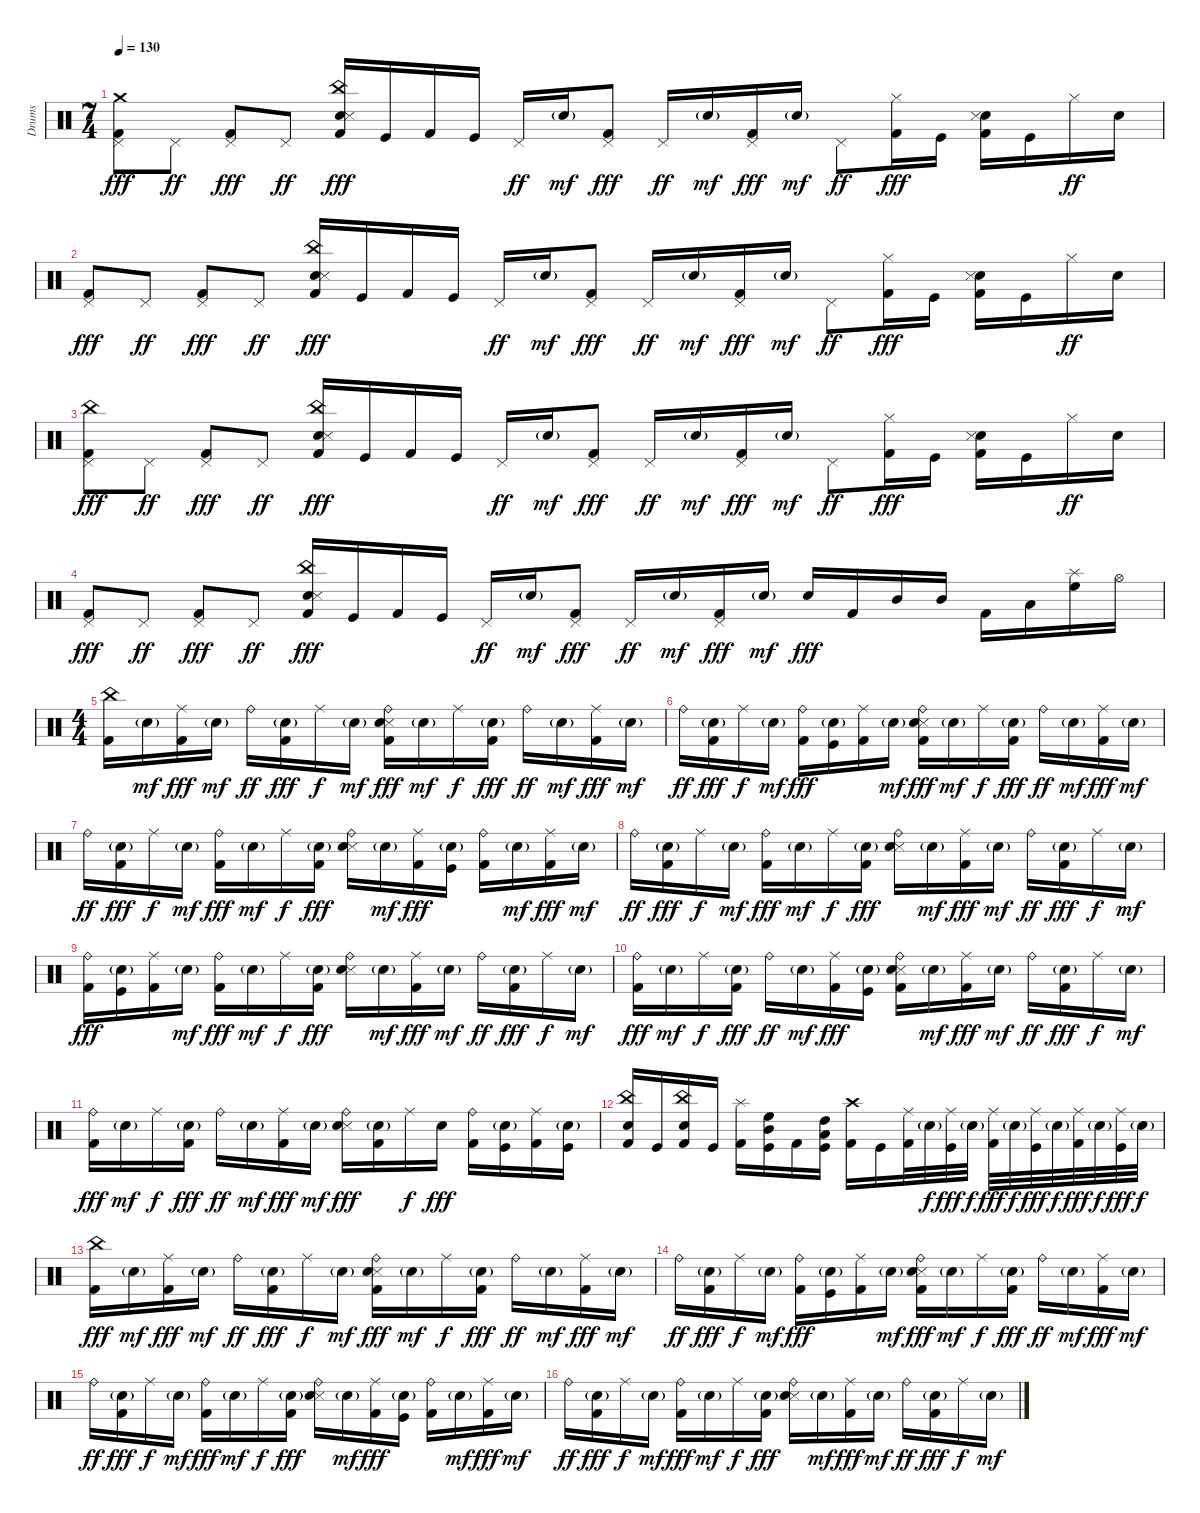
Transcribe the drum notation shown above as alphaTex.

\track ("Drums" "Drums") {instrument percussion}
\staff {score}
\articulation defaults
\ts (7 4)
\tempo 130
\clef neutral
\ks c
("Crash medium (hit)" "Pedal Hi-Hat (hit)" "Kick (hit) 2").8{dy fff} "Pedal Hi-Hat (hit)".8{dy ff} ("Pedal Hi-Hat (hit)" "Kick (hit) 2").8{dy fff} "Pedal Hi-Hat (hit)".8{dy ff} ("China (hit)" "Snare (hit) 2" "Snare (side stick) 3" "Kick (hit) 2").16{dy fff} "Kick (hit)".16 "Kick (hit) 2".16 "Kick (hit)".16 "Pedal Hi-Hat (hit)".16{dy ff} "Snare (hit) 2"{g}.16{dy mf} ("Pedal Hi-Hat (hit)" "Kick (hit) 2").8{dy fff} "Pedal Hi-Hat (hit)".16{dy ff} "Snare (hit) 2"{g}.16{dy mf} ("Pedal Hi-Hat (hit)" "Kick (hit) 2").16{dy fff} "Snare (hit) 2"{g}.16{dy mf} "Pedal Hi-Hat (hit)".8{dy ff} ("Hi-Hat (closed)" "Kick (hit) 2").16{dy fff} "Kick (hit)".16 ("Snare (hit) 2" "Snare (side stick) 3" "Kick (hit) 2").16 "Kick (hit)".16 "Hi-Hat (closed)".16{dy ff} "Snare (hit) 2".16 |
("Pedal Hi-Hat (hit)" "Kick (hit) 2").8{dy fff} "Pedal Hi-Hat (hit)".8{dy ff} ("Pedal Hi-Hat (hit)" "Kick (hit) 2").8{dy fff} "Pedal Hi-Hat (hit)".8{dy ff} ("China (hit)" "Snare (hit) 2" "Snare (side stick) 3" "Kick (hit) 2").16{dy fff} "Kick (hit)".16 "Kick (hit) 2".16 "Kick (hit)".16 "Pedal Hi-Hat (hit)".16{dy ff} "Snare (hit) 2"{g}.16{dy mf} ("Pedal Hi-Hat (hit)" "Kick (hit) 2").8{dy fff} "Pedal Hi-Hat (hit)".16{dy ff} "Snare (hit) 2"{g}.16{dy mf} ("Pedal Hi-Hat (hit)" "Kick (hit) 2").16{dy fff} "Snare (hit) 2"{g}.16{dy mf} "Pedal Hi-Hat (hit)".8{dy ff} ("Hi-Hat (closed)" "Kick (hit) 2").16{dy fff} "Kick (hit)".16 ("Snare (hit) 2" "Snare (side stick) 3" "Kick (hit) 2").16 "Kick (hit)".16 "Hi-Hat (closed)".16{dy ff} "Snare (hit) 2".16 |
("China (hit)" "Pedal Hi-Hat (hit)" "Kick (hit) 2").8{dy fff} "Pedal Hi-Hat (hit)".8{dy ff} ("Pedal Hi-Hat (hit)" "Kick (hit) 2").8{dy fff} "Pedal Hi-Hat (hit)".8{dy ff} ("China (hit)" "Snare (hit) 2" "Snare (side stick) 3" "Kick (hit) 2").16{dy fff} "Kick (hit)".16 "Kick (hit) 2".16 "Kick (hit)".16 "Pedal Hi-Hat (hit)".16{dy ff} "Snare (hit) 2"{g}.16{dy mf} ("Pedal Hi-Hat (hit)" "Kick (hit) 2").8{dy fff} "Pedal Hi-Hat (hit)".16{dy ff} "Snare (hit) 2"{g}.16{dy mf} ("Pedal Hi-Hat (hit)" "Kick (hit) 2").16{dy fff} "Snare (hit) 2"{g}.16{dy mf} "Pedal Hi-Hat (hit)".8{dy ff} ("Hi-Hat (closed)" "Kick (hit) 2").16{dy fff} "Kick (hit)".16 ("Snare (hit) 2" "Snare (side stick) 3" "Kick (hit) 2").16 "Kick (hit)".16 "Hi-Hat (closed)".16{dy ff} "Snare (hit) 2".16 |
("Pedal Hi-Hat (hit)" "Kick (hit) 2").8{dy fff} "Pedal Hi-Hat (hit)".8{dy ff} ("Pedal Hi-Hat (hit)" "Kick (hit) 2").8{dy fff} "Pedal Hi-Hat (hit)".8{dy ff} ("China (hit)" "Snare (hit) 2" "Snare (side stick) 3" "Kick (hit) 2").16{dy fff} "Kick (hit)".16 "Kick (hit) 2".16 "Kick (hit)".16 "Pedal Hi-Hat (hit)".16{dy ff} "Snare (hit) 2"{g}.16{dy mf} ("Pedal Hi-Hat (hit)" "Kick (hit) 2").8{dy fff} "Pedal Hi-Hat (hit)".16{dy ff} "Snare (hit) 2"{g}.16{dy mf} ("Pedal Hi-Hat (hit)" "Kick (hit) 2").16{dy fff} "Snare (hit) 2"{g}.16{dy mf} "Snare (hit) 2".16{dy fff} "Kick (hit) 2".16 "Mid Tom (hit)".16 "Mid Tom (hit)".16 "Kick (hit) 2".16 "Low Tom (hit)".16 ("Splash (hit)" "High Floor Tom (hit)").16 "Hi-Hat (open)".16 |
\ts (4 4)
("China (hit)" "Kick (hit) 2").16 "Snare (hit) 2"{g}.16{dy mf} ("Ride (middle)" "Kick (hit) 2").16{dy fff} "Snare (hit) 2"{g}.16{dy mf} "Ride (bell)".16{dy ff} ("Snare (hit) 2"{g} "Kick (hit) 2").16{dy fff} "Ride (middle)".16{dy f} "Snare (hit) 2"{g}.16{dy mf} ("Ride (bell)" "Snare (side stick) 3" "Snare (hit) 2" "Kick (hit) 2").16{dy fff} "Snare (hit) 2"{g}.16{dy mf} "Ride (middle)".16{dy f} ("Snare (hit) 2"{g} "Kick (hit) 2").16{dy fff} "Ride (bell)".16{dy ff} "Snare (hit) 2"{g}.16{dy mf} ("Ride (middle)" "Kick (hit) 2").16{dy fff} "Snare (hit) 2"{g}.16{dy mf} |
"Ride (bell)".16{dy ff} ("Snare (hit) 2"{g} "Kick (hit) 2").16{dy fff} "Ride (middle)".16{dy f} "Snare (hit) 2"{g}.16{dy mf} ("Ride (bell)" "Kick (hit) 2").16{dy fff} ("Snare (hit) 2"{g} "Kick (hit)").16 ("Ride (middle)" "Kick (hit) 2").16 "Snare (hit) 2"{g}.16{dy mf} ("Ride (bell)" "Snare (side stick) 3" "Snare (hit) 2" "Kick (hit) 2").16{dy fff} "Snare (hit) 2"{g}.16{dy mf} "Ride (middle)".16{dy f} ("Snare (hit) 2"{g} "Kick (hit) 2").16{dy fff} "Ride (bell)".16{dy ff} "Snare (hit) 2"{g}.16{dy mf} ("Ride (middle)" "Kick (hit) 2").16{dy fff} "Snare (hit) 2"{g}.16{dy mf} |
"Ride (bell)".16{dy ff} ("Snare (hit) 2"{g} "Kick (hit) 2").16{dy fff} "Ride (middle)".16{dy f} "Snare (hit) 2"{g}.16{dy mf} ("Ride (bell)" "Kick (hit) 2").16{dy fff} "Snare (hit) 2"{g}.16{dy mf} "Ride (middle)".16{dy f} ("Snare (hit) 2"{g} "Kick (hit) 2").16{dy fff} ("Ride (bell)" "Snare (side stick) 3" "Snare (hit) 2").16 "Snare (hit) 2"{g}.16{dy mf} ("Ride (middle)" "Kick (hit) 2").16{dy fff} ("Snare (hit) 2"{g} "Kick (hit)").16 ("Ride (bell)" "Kick (hit) 2").16 "Snare (hit) 2"{g}.16{dy mf} ("Ride (middle)" "Kick (hit) 2").16{dy fff} "Snare (hit) 2"{g}.16{dy mf} |
"Ride (bell)".16{dy ff} ("Snare (hit) 2"{g} "Kick (hit) 2").16{dy fff} "Ride (middle)".16{dy f} "Snare (hit) 2"{g}.16{dy mf} ("Ride (bell)" "Kick (hit) 2").16{dy fff} "Snare (hit) 2"{g}.16{dy mf} "Ride (middle)".16{dy f} ("Snare (hit) 2"{g} "Kick (hit) 2").16{dy fff} ("Ride (bell)" "Snare (side stick) 3" "Snare (hit) 2").16 "Snare (hit) 2"{g}.16{dy mf} ("Ride (middle)" "Kick (hit) 2").16{dy fff} "Snare (hit) 2"{g}.16{dy mf} "Ride (bell)".16{dy ff} ("Snare (hit) 2"{g} "Kick (hit) 2").16{dy fff} "Ride (middle)".16{dy f} "Snare (hit) 2"{g}.16{dy mf} |
("Ride (bell)" "Kick (hit) 2").16{dy fff} ("Snare (hit) 2"{g} "Kick (hit)").16 ("Ride (middle)" "Kick (hit) 2").16 "Snare (hit) 2"{g}.16{dy mf} ("Ride (bell)" "Kick (hit) 2").16{dy fff} "Snare (hit) 2"{g}.16{dy mf} "Ride (middle)".16{dy f} ("Snare (hit) 2"{g} "Kick (hit) 2").16{dy fff} ("Ride (bell)" "Snare (side stick) 3" "Snare (hit) 2").16 "Snare (hit) 2"{g}.16{dy mf} ("Ride (middle)" "Kick (hit) 2").16{dy fff} "Snare (hit) 2"{g}.16{dy mf} "Ride (bell)".16{dy ff} ("Snare (hit) 2"{g} "Kick (hit) 2").16{dy fff} "Ride (middle)".16{dy f} "Snare (hit) 2"{g}.16{dy mf} |
("Ride (bell)" "Kick (hit) 2").16{dy fff} "Snare (hit) 2"{g}.16{dy mf} "Ride (middle)".16{dy f} ("Snare (hit) 2"{g} "Kick (hit) 2").16{dy fff} "Ride (bell)".16{dy ff} "Snare (hit) 2"{g}.16{dy mf} ("Ride (middle)" "Kick (hit) 2").16{dy fff} ("Snare (hit) 2"{g} "Kick (hit)").16 ("Ride (bell)" "Snare (side stick) 3" "Snare (hit) 2" "Kick (hit) 2").16 "Snare (hit) 2"{g}.16{dy mf} ("Ride (middle)" "Kick (hit) 2").16{dy fff} "Snare (hit) 2"{g}.16{dy mf} "Ride (bell)".16{dy ff} ("Snare (hit) 2"{g} "Kick (hit) 2").16{dy fff} "Ride (middle)".16{dy f} "Snare (hit) 2"{g}.16{dy mf} |
("Ride (bell)" "Kick (hit) 2").16{dy fff} "Snare (hit) 2"{g}.16{dy mf} "Ride (middle)".16{dy f} ("Snare (hit) 2"{g} "Kick (hit) 2").16{dy fff} "Ride (bell)".16{dy ff} "Snare (hit) 2"{g}.16{dy mf} ("Ride (middle)" "Kick (hit) 2").16{dy fff} "Snare (hit) 2"{g}.16{dy mf} ("Ride (bell)" "Snare (side stick) 3" "Snare (hit) 2").16{dy fff} ("Snare (hit) 2"{g} "Kick (hit) 2").16 "Ride (middle)".16{dy f} "Snare (hit) 2".16{dy fff} ("Ride (bell)" "Kick (hit) 2").16 ("Snare (hit) 2"{g} "Kick (hit)").16 ("Ride (middle)" "Kick (hit) 2").16 ("Snare (hit) 2"{g} "Kick (hit)").16 |
("China (hit)" "Snare (hit) 2" "Kick (hit) 2").16 "Kick (hit)".16 ("China (hit)" "Snare (hit) 2" "Kick (hit) 2").16 "Kick (hit)".16 ("Splash (hit)" "Kick (hit) 2").16 ("High Floor Tom (hit)" "Mid Tom (hit)" "Kick (hit)").16 "Kick (hit) 2".16 ("High Tom (hit)" "Low Tom (hit)" "Kick (hit)").16 ("Crash high (hit)" "Kick (hit) 2").16 "Kick (hit)".16 ("Ride (middle)" "Kick (hit) 2").32 "Snare (hit) 2"{g}.32{dy f} ("Ride (middle)" "Kick (hit)").32{dy fff} "Snare (hit) 2"{g}.32{dy f} ("Ride (middle)" "Kick (hit) 2").32{dy fff} "Snare (hit) 2"{g}.32{dy f} ("Ride (middle)" "Kick (hit)").32{dy fff} "Snare (hit) 2"{g}.32{dy f} ("Ride (middle)" "Kick (hit) 2").32{dy fff} "Snare (hit) 2"{g}.32{dy f} ("Ride (middle)" "Kick (hit)").32{dy fff} "Snare (hit) 2"{g}.32{dy f} |
("China (hit)" "Kick (hit) 2").16{dy fff} "Snare (hit) 2"{g}.16{dy mf} ("Ride (middle)" "Kick (hit) 2").16{dy fff} "Snare (hit) 2"{g}.16{dy mf} "Ride (bell)".16{dy ff} ("Snare (hit) 2"{g} "Kick (hit) 2").16{dy fff} "Ride (middle)".16{dy f} "Snare (hit) 2"{g}.16{dy mf} ("Ride (bell)" "Snare (side stick) 3" "Snare (hit) 2" "Kick (hit) 2").16{dy fff} "Snare (hit) 2"{g}.16{dy mf} "Ride (middle)".16{dy f} ("Snare (hit) 2"{g} "Kick (hit) 2").16{dy fff} "Ride (bell)".16{dy ff} "Snare (hit) 2"{g}.16{dy mf} ("Ride (middle)" "Kick (hit) 2").16{dy fff} "Snare (hit) 2"{g}.16{dy mf} |
"Ride (bell)".16{dy ff} ("Snare (hit) 2"{g} "Kick (hit) 2").16{dy fff} "Ride (middle)".16{dy f} "Snare (hit) 2"{g}.16{dy mf} ("Ride (bell)" "Kick (hit) 2").16{dy fff} ("Snare (hit) 2"{g} "Kick (hit)").16 ("Ride (middle)" "Kick (hit) 2").16 "Snare (hit) 2"{g}.16{dy mf} ("Ride (bell)" "Snare (side stick) 3" "Snare (hit) 2" "Kick (hit) 2").16{dy fff} "Snare (hit) 2"{g}.16{dy mf} "Ride (middle)".16{dy f} ("Snare (hit) 2"{g} "Kick (hit) 2").16{dy fff} "Ride (bell)".16{dy ff} "Snare (hit) 2"{g}.16{dy mf} ("Ride (middle)" "Kick (hit) 2").16{dy fff} "Snare (hit) 2"{g}.16{dy mf} |
"Ride (bell)".16{dy ff} ("Snare (hit) 2"{g} "Kick (hit) 2").16{dy fff} "Ride (middle)".16{dy f} "Snare (hit) 2"{g}.16{dy mf} ("Ride (bell)" "Kick (hit) 2").16{dy fff} "Snare (hit) 2"{g}.16{dy mf} "Ride (middle)".16{dy f} ("Snare (hit) 2"{g} "Kick (hit) 2").16{dy fff} ("Ride (bell)" "Snare (side stick) 3" "Snare (hit) 2").16 "Snare (hit) 2"{g}.16{dy mf} ("Ride (middle)" "Kick (hit) 2").16{dy fff} ("Snare (hit) 2"{g} "Kick (hit)").16 ("Ride (bell)" "Kick (hit) 2").16 "Snare (hit) 2"{g}.16{dy mf} ("Ride (middle)" "Kick (hit) 2").16{dy fff} "Snare (hit) 2"{g}.16{dy mf} |
"Ride (bell)".16{dy ff} ("Snare (hit) 2"{g} "Kick (hit) 2").16{dy fff} "Ride (middle)".16{dy f} "Snare (hit) 2"{g}.16{dy mf} ("Ride (bell)" "Kick (hit) 2").16{dy fff} "Snare (hit) 2"{g}.16{dy mf} "Ride (middle)".16{dy f} ("Snare (hit) 2"{g} "Kick (hit) 2").16{dy fff} ("Ride (bell)" "Snare (side stick) 3" "Snare (hit) 2").16 "Snare (hit) 2"{g}.16{dy mf} ("Ride (middle)" "Kick (hit) 2").16{dy fff} "Snare (hit) 2"{g}.16{dy mf} "Ride (bell)".16{dy ff} ("Snare (hit) 2"{g} "Kick (hit) 2").16{dy fff} "Ride (middle)".16{dy f} "Snare (hit) 2"{g}.16{dy mf}
